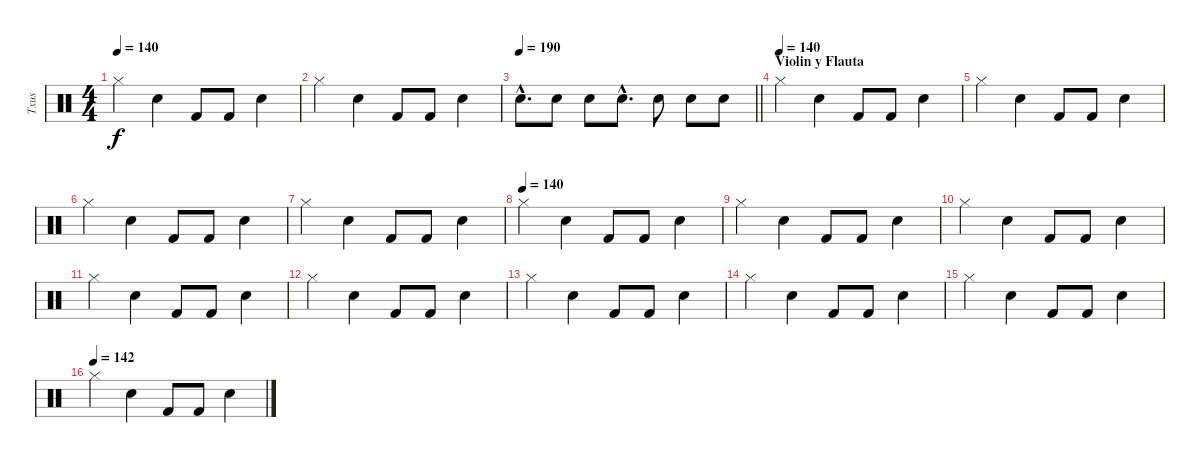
\track ("Txus" "Txus") {instrument percussion}
\staff {score}
\articulation defaults
\ts (4 4)
\tempo 140
\clef neutral
\ks c "Hi-Hat (closed)".4{dy f} "Snare (hit) 2".4 "Kick (hit) 2".8 "Kick (hit) 2".8 "Snare (hit) 2".4
|
"Hi-Hat (closed)".4 "Snare (hit) 2".4 "Kick (hit) 2".8 "Kick (hit) 2".8 "Snare (hit) 2".4 |
\tempo 190
\barLineRight lightlight "Electric Snare (hit)"{hac}.8{d} "Electric Snare (hit)".8 "Electric Snare (hit)".8 "Electric Snare (hit)"{hac}.8{d} "Electric Snare (hit)".8 "Electric Snare (hit)".8 "Electric Snare (hit)".8
|
\section ("" "Violin y Flauta")
\tempo (140)
"Hi-Hat (closed)".4{volume 11} "Snare (hit) 2".4 "Kick (hit) 2".8 "Kick (hit) 2".8 "Snare (hit) 2".4 |
"Hi-Hat (closed)".4 "Snare (hit) 2".4 "Kick (hit) 2".8 "Kick (hit) 2".8 "Snare (hit) 2".4 |
"Hi-Hat (closed)".4 "Snare (hit) 2".4 "Kick (hit) 2".8 "Kick (hit) 2".8 "Snare (hit) 2".4 |
"Hi-Hat (closed)".4 "Snare (hit) 2".4 "Kick (hit) 2".8 "Kick (hit) 2".8 "Snare (hit) 2".4 |
\tempo (140)
"Hi-Hat (closed)".4 "Snare (hit) 2".4 "Kick (hit) 2".8 "Kick (hit) 2".8 "Snare (hit) 2".4 |
"Hi-Hat (closed)".4 "Snare (hit) 2".4 "Kick (hit) 2".8 "Kick (hit) 2".8 "Snare (hit) 2".4 |
"Hi-Hat (closed)".4 "Snare (hit) 2".4 "Kick (hit) 2".8 "Kick (hit) 2".8 "Snare (hit) 2".4 |
"Hi-Hat (closed)".4 "Snare (hit) 2".4 "Kick (hit) 2".8 "Kick (hit) 2".8 "Snare (hit) 2".4 |
"Hi-Hat (closed)".4 "Snare (hit) 2".4 "Kick (hit) 2".8 "Kick (hit) 2".8 "Snare (hit) 2".4 |
"Hi-Hat (closed)".4 "Snare (hit) 2".4 "Kick (hit) 2".8 "Kick (hit) 2".8 "Snare (hit) 2".4 |
"Hi-Hat (closed)".4 "Snare (hit) 2".4 "Kick (hit) 2".8 "Kick (hit) 2".8 "Snare (hit) 2".4 |
"Hi-Hat (closed)".4 "Snare (hit) 2".4 "Kick (hit) 2".8 "Kick (hit) 2".8 "Snare (hit) 2".4 |
\tempo (142)
"Hi-Hat (closed)".4 "Snare (hit) 2".4 "Kick (hit) 2".8 "Kick (hit) 2".8 "Snare (hit) 2".4
